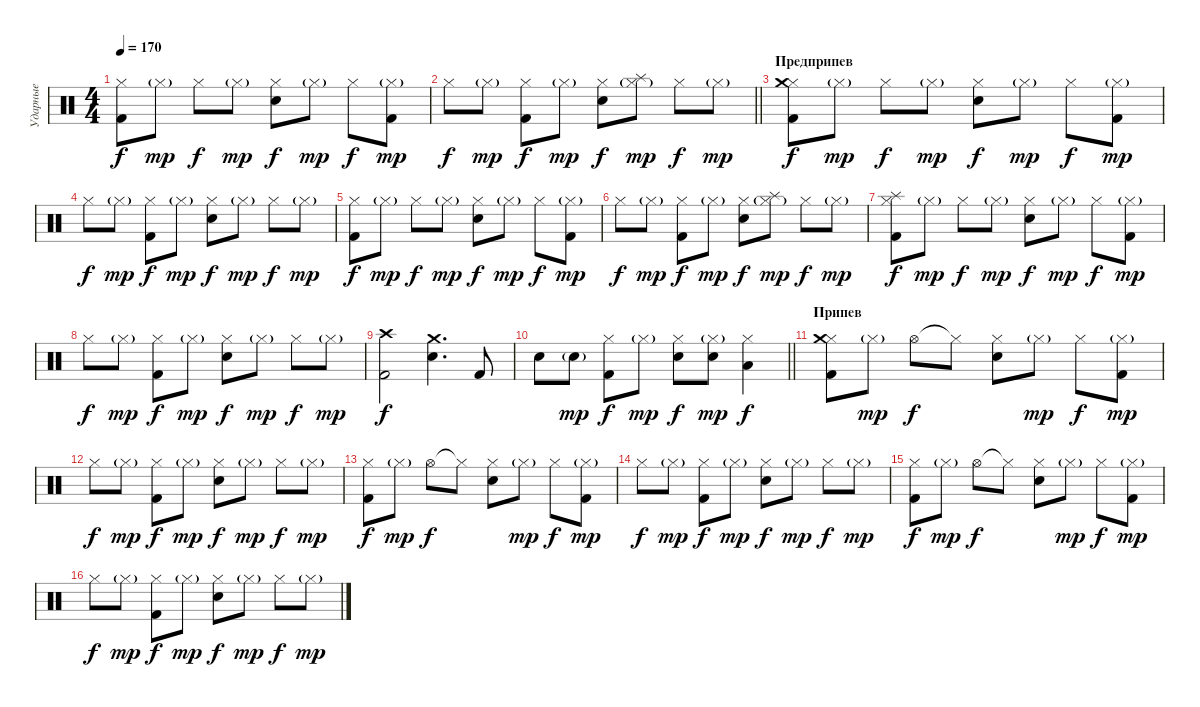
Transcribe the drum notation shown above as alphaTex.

\track ("Ударные" "Ударные") {instrument percussion}
\staff {score}
\articulation defaults
\ts (4 4)
\tempo 170
\clef neutral
\ks c
("Kick (hit) 2" "Hi-Hat (closed)").8{dy f} "Hi-Hat (closed)"{g}.8{dy mp} "Hi-Hat (closed)".8{dy f} "Hi-Hat (closed)"{g}.8{dy mp} ("Electric Snare (hit)" "Hi-Hat (closed)").8{dy f} "Hi-Hat (closed)"{g}.8{dy mp} "Hi-Hat (closed)".8{dy f} ("Kick (hit) 2" "Hi-Hat (closed)"{g}).8{dy mp} |
\barLineRight lightlight "Hi-Hat (closed)".8{dy f} "Hi-Hat (closed)"{g}.8{dy mp}
("Kick (hit) 2" "Hi-Hat (closed)").8{dy f} "Hi-Hat (closed)"{g}.8{dy mp} ("Electric Snare (hit)" "Hi-Hat (closed)").8{dy f} ("Splash (hit)" "Hi-Hat (closed)"{g}).8{dy mp} "Hi-Hat (closed)".8{dy f} "Hi-Hat (closed)"{g}.8{dy mp} |
\section ("" "Предприпев")
("Kick (hit) 2" "Hi-Hat (closed)" "Crash medium (hit)").8{dy f} "Hi-Hat (closed)"{g}.8{dy mp} "Hi-Hat (closed)".8{dy f} "Hi-Hat (closed)"{g}.8{dy mp} ("Electric Snare (hit)" "Hi-Hat (closed)").8{dy f} "Hi-Hat (closed)"{g}.8{dy mp} "Hi-Hat (closed)".8{dy f} ("Kick (hit) 2" "Hi-Hat (closed)"{g}).8{dy mp} |
"Hi-Hat (closed)".8{dy f} "Hi-Hat (closed)"{g}.8{dy mp} ("Kick (hit) 2" "Hi-Hat (closed)").8{dy f} "Hi-Hat (closed)"{g}.8{dy mp} ("Electric Snare (hit)" "Hi-Hat (closed)").8{dy f} "Hi-Hat (closed)"{g}.8{dy mp} "Hi-Hat (closed)".8{dy f} "Hi-Hat (closed)"{g}.8{dy mp} |
("Kick (hit) 2" "Hi-Hat (closed)").8{dy f} "Hi-Hat (closed)"{g}.8{dy mp} "Hi-Hat (closed)".8{dy f} "Hi-Hat (closed)"{g}.8{dy mp} ("Electric Snare (hit)" "Hi-Hat (closed)").8{dy f} "Hi-Hat (closed)"{g}.8{dy mp} "Hi-Hat (closed)".8{dy f} ("Kick (hit) 2" "Hi-Hat (closed)"{g}).8{dy mp} |
"Hi-Hat (closed)".8{dy f} "Hi-Hat (closed)"{g}.8{dy mp} ("Kick (hit) 2" "Hi-Hat (closed)").8{dy f} "Hi-Hat (closed)"{g}.8{dy mp} ("Electric Snare (hit)" "Hi-Hat (closed)").8{dy f} ("Splash (hit)" "Hi-Hat (closed)"{g}).8{dy mp} "Hi-Hat (closed)".8{dy f} "Hi-Hat (closed)"{g}.8{dy mp} |
("Kick (hit) 2" "Hi-Hat (closed)" "Splash (hit)").8{dy f} "Hi-Hat (closed)"{g}.8{dy mp} "Hi-Hat (closed)".8{dy f} "Hi-Hat (closed)"{g}.8{dy mp} ("Electric Snare (hit)" "Hi-Hat (closed)").8{dy f} "Hi-Hat (closed)"{g}.8{dy mp} "Hi-Hat (closed)".8{dy f} ("Kick (hit) 2" "Hi-Hat (closed)"{g}).8{dy mp} |
"Hi-Hat (closed)".8{dy f} "Hi-Hat (closed)"{g}.8{dy mp} ("Kick (hit) 2" "Hi-Hat (closed)").8{dy f} "Hi-Hat (closed)"{g}.8{dy mp} ("Electric Snare (hit)" "Hi-Hat (closed)").8{dy f} "Hi-Hat (closed)"{g}.8{dy mp} "Hi-Hat (closed)".8{dy f} "Hi-Hat (closed)"{g}.8{dy mp} |
("Kick (hit) 2" "Crash high (hit)").2{dy f} ("Electric Snare (hit)" "Crash medium (hit)").4{d} "Kick (hit) 2".8 |
\barLineRight lightlight "Electric Snare (hit)".8 "Electric Snare (hit)"{g}.8{dy mp}
("Kick (hit) 2" "Hi-Hat (closed)").8{dy f} "Hi-Hat (closed)"{g}.8{dy mp} ("Electric Snare (hit)" "Hi-Hat (closed)").8{dy f} ("Electric Snare (hit)" "Hi-Hat (closed)"{g}).8{dy mp} ("Low Floor Tom (hit)" "Hi-Hat (closed)").4{dy f} |
\section ("" "Припев")
("Kick (hit) 2" "Hi-Hat (closed)" "Crash medium (hit)").8 "Hi-Hat (closed)"{g}.8{dy mp} "Hi-Hat (open)".8{dy f} "Hi-Hat (closed)"{t}.8 ("Electric Snare (hit)" "Hi-Hat (closed)").8 "Hi-Hat (closed)"{g}.8{dy mp} "Hi-Hat (closed)".8{dy f} ("Kick (hit) 2" "Hi-Hat (closed)"{g}).8{dy mp} |
"Hi-Hat (closed)".8{dy f} "Hi-Hat (closed)"{g}.8{dy mp} ("Kick (hit) 2" "Hi-Hat (closed)").8{dy f} "Hi-Hat (closed)"{g}.8{dy mp} ("Electric Snare (hit)" "Hi-Hat (closed)").8{dy f} "Hi-Hat (closed)"{g}.8{dy mp} "Hi-Hat (closed)".8{dy f} "Hi-Hat (closed)"{g}.8{dy mp} |
("Kick (hit) 2" "Hi-Hat (closed)").8{dy f} "Hi-Hat (closed)"{g}.8{dy mp} "Hi-Hat (open)".8{dy f} "Hi-Hat (closed)"{t}.8 ("Electric Snare (hit)" "Hi-Hat (closed)").8 "Hi-Hat (closed)"{g}.8{dy mp} "Hi-Hat (closed)".8{dy f} ("Kick (hit) 2" "Hi-Hat (closed)"{g}).8{dy mp} |
"Hi-Hat (closed)".8{dy f} "Hi-Hat (closed)"{g}.8{dy mp} ("Kick (hit) 2" "Hi-Hat (closed)").8{dy f} "Hi-Hat (closed)"{g}.8{dy mp} ("Electric Snare (hit)" "Hi-Hat (closed)").8{dy f} "Hi-Hat (closed)"{g}.8{dy mp} "Hi-Hat (closed)".8{dy f} "Hi-Hat (closed)"{g}.8{dy mp} |
("Kick (hit) 2" "Hi-Hat (closed)").8{dy f} "Hi-Hat (closed)"{g}.8{dy mp} "Hi-Hat (open)".8{dy f} "Hi-Hat (closed)"{t}.8 ("Electric Snare (hit)" "Hi-Hat (closed)").8 "Hi-Hat (closed)"{g}.8{dy mp} "Hi-Hat (closed)".8{dy f} ("Kick (hit) 2" "Hi-Hat (closed)"{g}).8{dy mp} |
"Hi-Hat (closed)".8{dy f} "Hi-Hat (closed)"{g}.8{dy mp} ("Kick (hit) 2" "Hi-Hat (closed)").8{dy f} "Hi-Hat (closed)"{g}.8{dy mp} ("Electric Snare (hit)" "Hi-Hat (closed)").8{dy f} "Hi-Hat (closed)"{g}.8{dy mp} "Hi-Hat (closed)".8{dy f} "Hi-Hat (closed)"{g}.8{dy mp}
